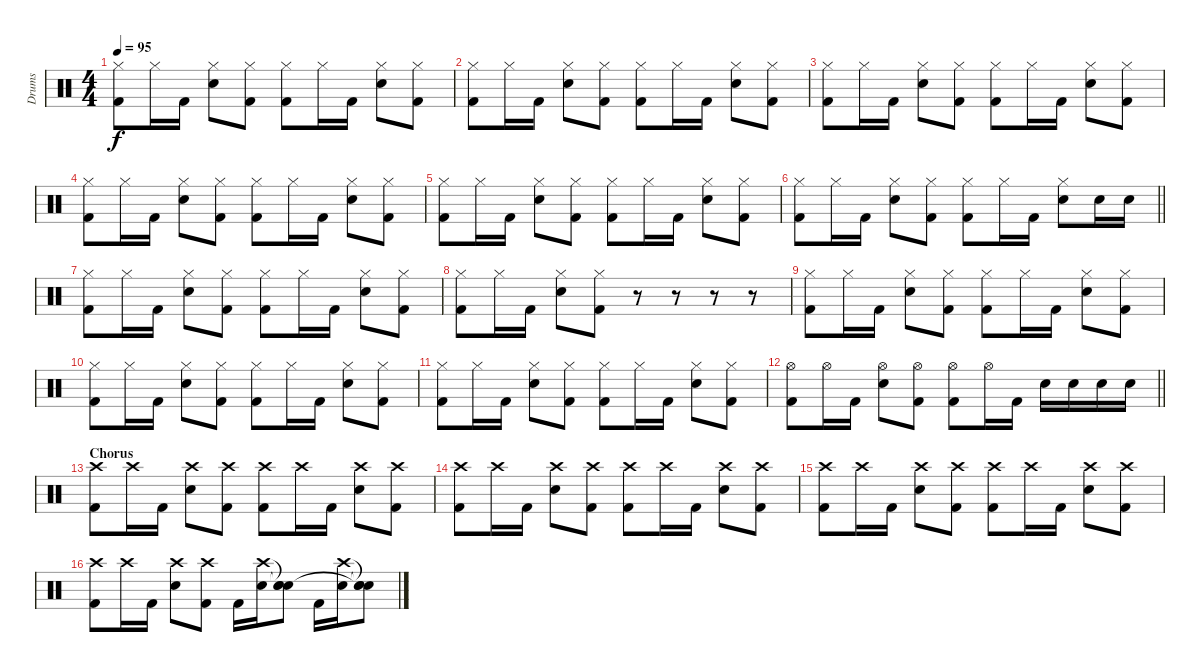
\track ("Drums" "Drums") {instrument percussion}
\staff {score}
\articulation defaults
\ts (4 4)
\tempo 95
\clef neutral
\ks c
("Hi-Hat (closed)" "Kick (hit) 2").8{dy f} "Hi-Hat (closed)".16 "Kick (hit) 2".16 ("Hi-Hat (closed)" "Snare (hit) 2").8 ("Hi-Hat (closed)" "Kick (hit) 2").8 ("Hi-Hat (closed)" "Kick (hit) 2").8 "Hi-Hat (closed)".16 "Kick (hit) 2".16 ("Hi-Hat (closed)" "Snare (hit) 2").8 ("Hi-Hat (closed)" "Kick (hit) 2").8 |
("Hi-Hat (closed)" "Kick (hit) 2").8 "Hi-Hat (closed)".16 "Kick (hit) 2".16 ("Hi-Hat (closed)" "Snare (hit) 2").8 ("Hi-Hat (closed)" "Kick (hit) 2").8 ("Hi-Hat (closed)" "Kick (hit) 2").8 "Hi-Hat (closed)".16 "Kick (hit) 2".16 ("Hi-Hat (closed)" "Snare (hit) 2").8 ("Hi-Hat (closed)" "Kick (hit) 2").8 |
("Hi-Hat (closed)" "Kick (hit) 2").8 "Hi-Hat (closed)".16 "Kick (hit) 2".16 ("Hi-Hat (closed)" "Snare (hit) 2").8 ("Hi-Hat (closed)" "Kick (hit) 2").8 ("Hi-Hat (closed)" "Kick (hit) 2").8 "Hi-Hat (closed)".16 "Kick (hit) 2".16 ("Hi-Hat (closed)" "Snare (hit) 2").8 ("Hi-Hat (closed)" "Kick (hit) 2").8 |
("Hi-Hat (closed)" "Kick (hit) 2").8 "Hi-Hat (closed)".16 "Kick (hit) 2".16 ("Hi-Hat (closed)" "Snare (hit) 2").8 ("Hi-Hat (closed)" "Kick (hit) 2").8 ("Hi-Hat (closed)" "Kick (hit) 2").8 "Hi-Hat (closed)".16 "Kick (hit) 2".16 ("Hi-Hat (closed)" "Snare (hit) 2").8 ("Hi-Hat (closed)" "Kick (hit) 2").8 |
("Hi-Hat (closed)" "Kick (hit) 2").8 "Hi-Hat (closed)".16 "Kick (hit) 2".16 ("Hi-Hat (closed)" "Snare (hit) 2").8 ("Hi-Hat (closed)" "Kick (hit) 2").8 ("Hi-Hat (closed)" "Kick (hit) 2").8 "Hi-Hat (closed)".16 "Kick (hit) 2".16 ("Hi-Hat (closed)" "Snare (hit) 2").8 ("Hi-Hat (closed)" "Kick (hit) 2").8 |
\barLineRight lightlight
("Hi-Hat (closed)" "Kick (hit) 2").8 "Hi-Hat (closed)".16 "Kick (hit) 2".16 ("Hi-Hat (closed)" "Snare (hit) 2").8 ("Hi-Hat (closed)" "Kick (hit) 2").8 ("Hi-Hat (closed)" "Kick (hit) 2").8 "Hi-Hat (closed)".16 "Kick (hit) 2".16 ("Hi-Hat (closed)" "Snare (hit) 2").8 "Snare (hit) 2".16 "Snare (hit) 2".16 |
("Hi-Hat (closed)" "Kick (hit) 2").8 "Hi-Hat (closed)".16 "Kick (hit) 2".16 ("Hi-Hat (closed)" "Snare (hit) 2").8 ("Hi-Hat (closed)" "Kick (hit) 2").8 ("Hi-Hat (closed)" "Kick (hit) 2").8 "Hi-Hat (closed)".16 "Kick (hit) 2".16 ("Hi-Hat (closed)" "Snare (hit) 2").8 ("Hi-Hat (closed)" "Kick (hit) 2").8 |
("Hi-Hat (closed)" "Kick (hit) 2").8 "Hi-Hat (closed)".16 "Kick (hit) 2".16 ("Hi-Hat (closed)" "Snare (hit) 2").8 ("Hi-Hat (closed)" "Kick (hit) 2").8 r.8 r.8 r.8 r.8 |
("Hi-Hat (closed)" "Kick (hit) 2").8 "Hi-Hat (closed)".16 "Kick (hit) 2".16 ("Hi-Hat (closed)" "Snare (hit) 2").8 ("Hi-Hat (closed)" "Kick (hit) 2").8 ("Hi-Hat (closed)" "Kick (hit) 2").8 "Hi-Hat (closed)".16 "Kick (hit) 2".16 ("Hi-Hat (closed)" "Snare (hit) 2").8 ("Hi-Hat (closed)" "Kick (hit) 2").8 |
("Hi-Hat (closed)" "Kick (hit) 2").8 "Hi-Hat (closed)".16 "Kick (hit) 2".16 ("Hi-Hat (closed)" "Snare (hit) 2").8 ("Hi-Hat (closed)" "Kick (hit) 2").8 ("Hi-Hat (closed)" "Kick (hit) 2").8 "Hi-Hat (closed)".16 "Kick (hit) 2".16 ("Hi-Hat (closed)" "Snare (hit) 2").8 ("Hi-Hat (closed)" "Kick (hit) 2").8 |
("Hi-Hat (closed)" "Kick (hit) 2").8 "Hi-Hat (closed)".16 "Kick (hit) 2".16 ("Hi-Hat (closed)" "Snare (hit) 2").8 ("Hi-Hat (closed)" "Kick (hit) 2").8 ("Hi-Hat (closed)" "Kick (hit) 2").8 "Hi-Hat (closed)".16 "Kick (hit) 2".16 ("Hi-Hat (closed)" "Snare (hit) 2").8 ("Hi-Hat (closed)" "Kick (hit) 2").8 |
\barLineRight lightlight
("Hi-Hat (open)" "Kick (hit) 2").8 "Hi-Hat (open)".16 "Kick (hit) 2".16 ("Hi-Hat (open)" "Snare (hit) 2").8 ("Hi-Hat (open)" "Kick (hit) 2").8 ("Hi-Hat (open)" "Kick (hit) 2").8 "Hi-Hat (open)".16 "Kick (hit) 2".16 "Snare (hit) 2".16 "Snare (hit) 2".16 "Snare (hit) 2".16 "Snare (hit) 2".16 |
\section ("" "Chorus")
("Crash high (hit)" "Kick (hit) 2").8 "Crash high (hit)".16 "Kick (hit) 2".16 ("Crash high (hit)" "Snare (hit) 2").8 ("Crash high (hit)" "Kick (hit) 2").8 ("Crash high (hit)" "Kick (hit) 2").8 "Crash high (hit)".16 "Kick (hit) 2".16 ("Crash high (hit)" "Snare (hit) 2").8 ("Crash high (hit)" "Kick (hit) 2").8 |
("Crash high (hit)" "Kick (hit) 2").8 "Crash high (hit)".16 "Kick (hit) 2".16 ("Crash high (hit)" "Snare (hit) 2").8 ("Crash high (hit)" "Kick (hit) 2").8 ("Crash high (hit)" "Kick (hit) 2").8 "Crash high (hit)".16 "Kick (hit) 2".16 ("Crash high (hit)" "Snare (hit) 2").8 ("Crash high (hit)" "Kick (hit) 2").8 |
("Crash high (hit)" "Kick (hit) 2").8 "Crash high (hit)".16 "Kick (hit) 2".16 ("Crash high (hit)" "Snare (hit) 2").8 ("Crash high (hit)" "Kick (hit) 2").8 ("Crash high (hit)" "Kick (hit) 2").8 "Crash high (hit)".16 "Kick (hit) 2".16 ("Crash high (hit)" "Snare (hit) 2").8 ("Crash high (hit)" "Kick (hit) 2").8 |
("Crash high (hit)" "Kick (hit) 2").8 "Crash high (hit)".16 "Kick (hit) 2".16 ("Crash high (hit)" "Snare (hit) 2").8 ("Crash high (hit)" "Kick (hit) 2").8 "Kick (hit) 2".16 ("Crash high (hit)" "Snare (hit) 2").16 ("Snare (hit)"{t} "Snare (hit)"{t} "Snare (hit)").8 "Kick (hit) 2".16 ("Crash high (hit)" "Snare (hit) 2").16 ("Snare (hit)"{t} "Snare (hit)"{t} "Snare (hit)"{t}).8
